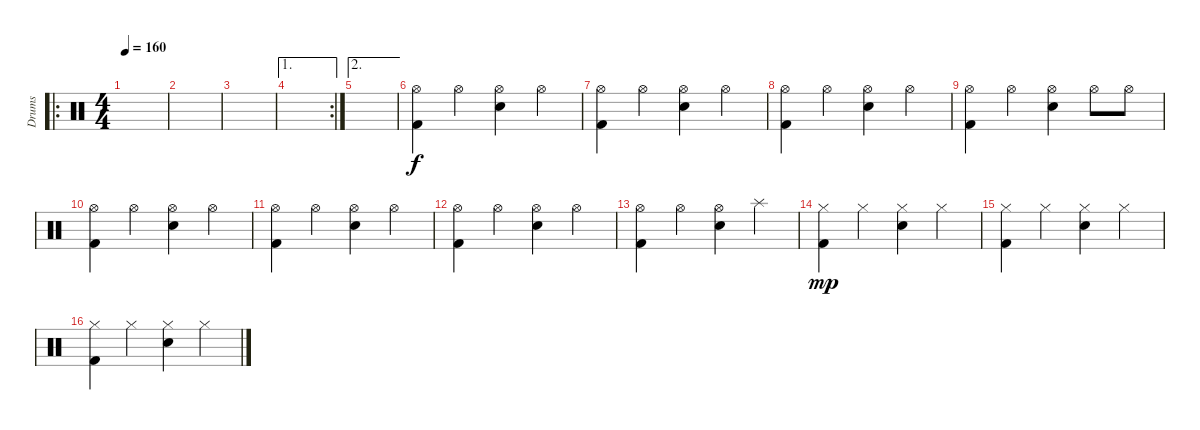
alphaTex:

\track ("Drums" "Drums") {instrument percussion}
\staff {score}
\articulation defaults
\ro
\ts (4 4)
\tempo 160
\tempo 152
\tempo 160
\clef neutral
\ks c
|
|
|
\ae 1
\rc 2
|
\ae 2
|
("Hi-Hat (open)" "Kick (hit) 2").4 "Hi-Hat (open)".4 ("Hi-Hat (open)" "Snare (hit) 2").4 "Hi-Hat (open)".4 |
("Hi-Hat (open)" "Kick (hit) 2").4 "Hi-Hat (open)".4 ("Hi-Hat (open)" "Snare (hit) 2").4 "Hi-Hat (open)".4 |
("Hi-Hat (open)" "Kick (hit) 2").4 "Hi-Hat (open)".4 ("Hi-Hat (open)" "Snare (hit) 2").4 "Hi-Hat (open)".4 |
("Hi-Hat (open)" "Kick (hit) 2").4 "Hi-Hat (open)".4 ("Hi-Hat (open)" "Snare (hit) 2").4 "Hi-Hat (open)".8 "Hi-Hat (open)".8 |
("Hi-Hat (open)" "Kick (hit) 2").4 "Hi-Hat (open)".4 ("Hi-Hat (open)" "Snare (hit) 2").4 "Hi-Hat (open)".4 |
("Hi-Hat (open)" "Kick (hit) 2").4 "Hi-Hat (open)".4 ("Hi-Hat (open)" "Snare (hit) 2").4 "Hi-Hat (open)".4 |
("Hi-Hat (open)" "Kick (hit) 2").4 "Hi-Hat (open)".4 ("Hi-Hat (open)" "Snare (hit) 2").4 "Hi-Hat (open)".4 |
("Hi-Hat (open)" "Kick (hit) 2").4 "Hi-Hat (open)".4 ("Hi-Hat (open)" "Snare (hit) 2").4 "Splash (hit)".4{dy f} |
("Hi-Hat (closed)" "Kick (hit) 2").4{dy mp} "Hi-Hat (closed)".4 ("Hi-Hat (closed)" "Snare (hit) 2").4 "Hi-Hat (closed)".4 |
("Hi-Hat (closed)" "Kick (hit) 2").4 "Hi-Hat (closed)".4 ("Hi-Hat (closed)" "Snare (hit) 2").4 "Hi-Hat (closed)".4 |
("Hi-Hat (closed)" "Kick (hit) 2").4 "Hi-Hat (closed)".4 ("Hi-Hat (closed)" "Snare (hit) 2").4 "Hi-Hat (closed)".4
